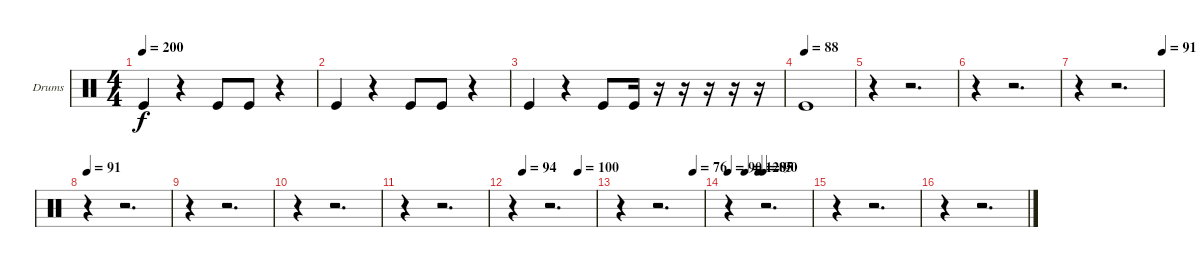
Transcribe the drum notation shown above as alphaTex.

\bracketExtendMode groupsimilarinstruments
\firstSystemTrackNameOrientation horizontal
\otherSystemsTrackNameOrientation horizontal
\track ("Drumkit" "Drums") {instrument percussion}
\staff {score}
\articulation defaults
\ts (4 4)
\tempo 200
\clef neutral
\ks c "Kick (hit)".4{dy f}
r.4 "Kick (hit)".8 "Kick (hit)".8 r.4 |
"Kick (hit)".4 r.4 "Kick (hit)".8 "Kick (hit)".8 r.4 |
"Kick (hit)".4 r.4 "Kick (hit)".8 "Kick (hit)".16 r.16 r.16 r.16 r.16 r.16 |
\tempo (88)
"Kick (hit)".1 |
r.4 r.2{d} |
r.4 r.2{d} |
\tempo (91 1)
r.4 r.2{d} |
\tempo 91
r.4 r.2{d} |
r.4 r.2{d} |
r.4 r.2{d} |
r.4 r.2{d} |
\tempo (94 0.125)
\tempo (100 0.791667)
r.4 r.2{d} |
\tempo (76 0.875)
r.4 r.2{d} |
\tempo 90
\tempo (120 0.205479)
\tempo (85 0.369863)
\tempo (90 0.424658)
r.4 r.2{d} |
r.4 r.2{d} |
r.4 r.2{d}
